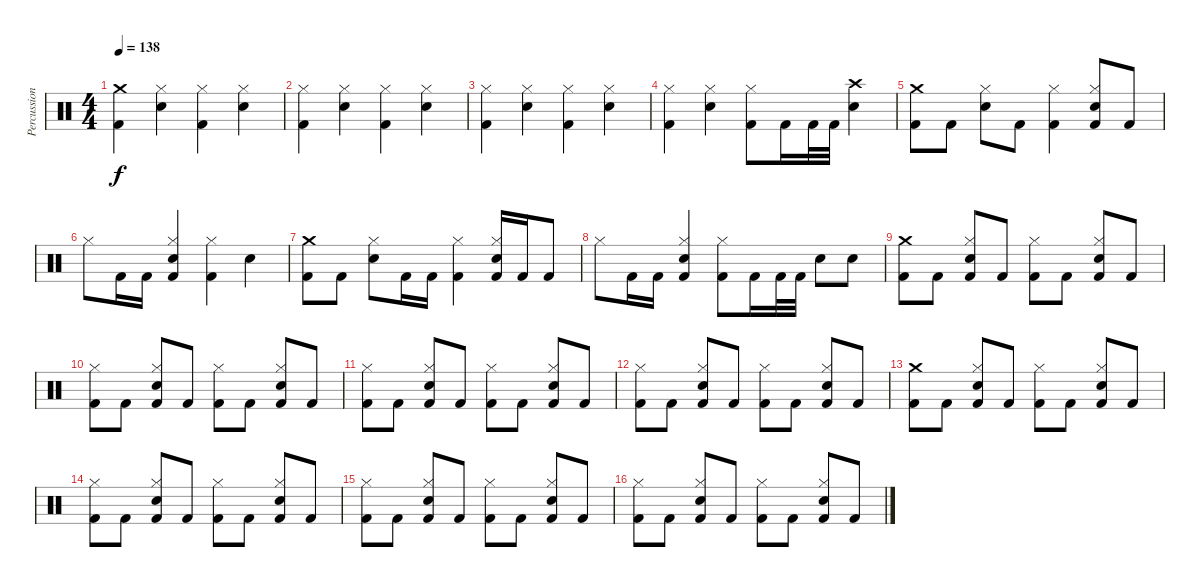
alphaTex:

\track ("Percussion" "Percussion") {instrument percussion}
\staff {score}
\articulation defaults
\ts (4 4)
\tempo 138
\clef neutral
\ks c
("Crash medium (hit)" "Kick (hit) 2").4{dy f} ("Hi-Hat (closed)" "Electric Snare (hit)").4 ("Hi-Hat (closed)" "Kick (hit) 2").4 ("Hi-Hat (closed)" "Electric Snare (hit)").4 |
("Hi-Hat (closed)" "Kick (hit) 2").4 ("Hi-Hat (closed)" "Electric Snare (hit)").4 ("Hi-Hat (closed)" "Kick (hit) 2").4 ("Hi-Hat (closed)" "Electric Snare (hit)").4 |
("Hi-Hat (closed)" "Kick (hit) 2").4 ("Hi-Hat (closed)" "Electric Snare (hit)").4 ("Hi-Hat (closed)" "Kick (hit) 2").4 ("Hi-Hat (closed)" "Electric Snare (hit)").4 |
("Hi-Hat (closed)" "Kick (hit) 2").4 ("Hi-Hat (closed)" "Electric Snare (hit)").4 ("Hi-Hat (closed)" "Kick (hit) 2").8 "Kick (hit) 2".16 "Kick (hit) 2".32 "Kick (hit) 2".32 ("Crash high (hit)" "Electric Snare (hit)").4 |
("Crash medium (hit)" "Kick (hit) 2").8 "Kick (hit) 2".8 ("Hi-Hat (closed)" "Electric Snare (hit)").8 "Kick (hit) 2".8 ("Hi-Hat (closed)" "Kick (hit) 2").4 ("Hi-Hat (closed)" "Electric Snare (hit)" "Kick (hit) 2").8 "Kick (hit) 2".8 |
"Hi-Hat (closed)".8 "Kick (hit) 2".16 "Kick (hit) 2".16 ("Hi-Hat (closed)" "Electric Snare (hit)" "Kick (hit) 2").4 ("Hi-Hat (closed)" "Kick (hit) 2").4 "Electric Snare (hit)".4 |
("Crash medium (hit)" "Kick (hit) 2").8 "Kick (hit) 2".8 ("Hi-Hat (closed)" "Electric Snare (hit)").8 "Kick (hit) 2".16 "Kick (hit) 2".16 ("Hi-Hat (closed)" "Kick (hit) 2").4 ("Hi-Hat (closed)" "Electric Snare (hit)" "Kick (hit) 2").16 "Kick (hit) 2".16 "Kick (hit) 2".8 |
"Hi-Hat (closed)".8 "Kick (hit) 2".16 "Kick (hit) 2".16 ("Hi-Hat (closed)" "Electric Snare (hit)" "Kick (hit) 2").4 ("Hi-Hat (closed)" "Kick (hit) 2").8 "Kick (hit) 2".16 "Kick (hit) 2".32 "Kick (hit) 2".32 "Electric Snare (hit)".8 "Electric Snare (hit)".8 |
("Crash medium (hit)" "Kick (hit) 2").8 "Kick (hit) 2".8 ("Hi-Hat (closed)" "Electric Snare (hit)" "Kick (hit) 2").8 "Kick (hit) 2".8 ("Hi-Hat (closed)" "Kick (hit) 2").8 "Kick (hit) 2".8 ("Hi-Hat (closed)" "Electric Snare (hit)" "Kick (hit) 2").8 "Kick (hit) 2".8 |
("Hi-Hat (closed)" "Kick (hit) 2").8 "Kick (hit) 2".8 ("Hi-Hat (closed)" "Electric Snare (hit)" "Kick (hit) 2").8 "Kick (hit) 2".8 ("Hi-Hat (closed)" "Kick (hit) 2").8 "Kick (hit) 2".8 ("Hi-Hat (closed)" "Electric Snare (hit)" "Kick (hit) 2").8 "Kick (hit) 2".8 |
("Hi-Hat (closed)" "Kick (hit) 2").8 "Kick (hit) 2".8 ("Hi-Hat (closed)" "Electric Snare (hit)" "Kick (hit) 2").8 "Kick (hit) 2".8 ("Hi-Hat (closed)" "Kick (hit) 2").8 "Kick (hit) 2".8 ("Hi-Hat (closed)" "Electric Snare (hit)" "Kick (hit) 2").8 "Kick (hit) 2".8 |
("Hi-Hat (closed)" "Kick (hit) 2").8 "Kick (hit) 2".8 ("Hi-Hat (closed)" "Electric Snare (hit)" "Kick (hit) 2").8 "Kick (hit) 2".8 ("Hi-Hat (closed)" "Kick (hit) 2").8 "Kick (hit) 2".8 ("Hi-Hat (closed)" "Electric Snare (hit)" "Kick (hit) 2").8 "Kick (hit) 2".8 |
("Crash medium (hit)" "Kick (hit) 2").8 "Kick (hit) 2".8 ("Hi-Hat (closed)" "Electric Snare (hit)" "Kick (hit) 2").8 "Kick (hit) 2".8 ("Hi-Hat (closed)" "Kick (hit) 2").8 "Kick (hit) 2".8 ("Hi-Hat (closed)" "Electric Snare (hit)" "Kick (hit) 2").8 "Kick (hit) 2".8 |
("Hi-Hat (closed)" "Kick (hit) 2").8 "Kick (hit) 2".8 ("Hi-Hat (closed)" "Electric Snare (hit)" "Kick (hit) 2").8 "Kick (hit) 2".8 ("Hi-Hat (closed)" "Kick (hit) 2").8 "Kick (hit) 2".8 ("Hi-Hat (closed)" "Electric Snare (hit)" "Kick (hit) 2").8 "Kick (hit) 2".8 |
("Hi-Hat (closed)" "Kick (hit) 2").8 "Kick (hit) 2".8 ("Hi-Hat (closed)" "Electric Snare (hit)" "Kick (hit) 2").8 "Kick (hit) 2".8 ("Hi-Hat (closed)" "Kick (hit) 2").8 "Kick (hit) 2".8 ("Hi-Hat (closed)" "Electric Snare (hit)" "Kick (hit) 2").8 "Kick (hit) 2".8 |
("Hi-Hat (closed)" "Kick (hit) 2").8 "Kick (hit) 2".8 ("Hi-Hat (closed)" "Electric Snare (hit)" "Kick (hit) 2").8 "Kick (hit) 2".8 ("Hi-Hat (closed)" "Kick (hit) 2").8 "Kick (hit) 2".8 ("Hi-Hat (closed)" "Electric Snare (hit)" "Kick (hit) 2").8 "Kick (hit) 2".8
